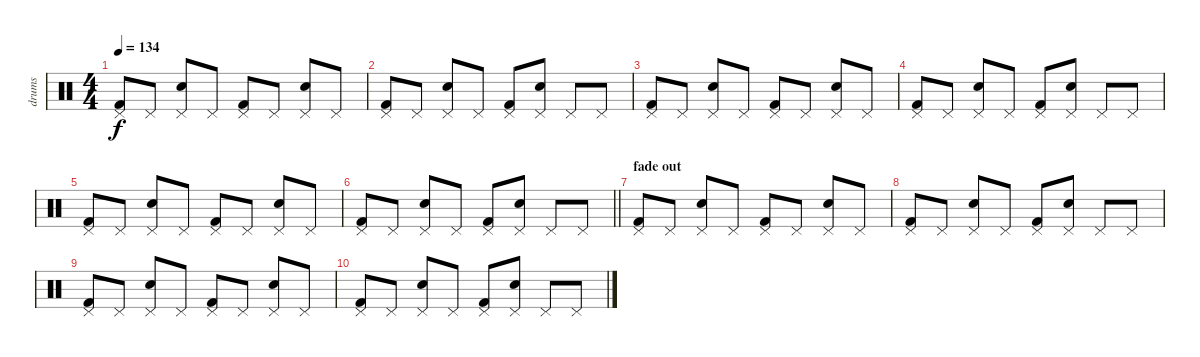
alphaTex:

\track ("drums" "drums") {instrument percussion}
\staff {score}
\articulation defaults
\ts (4 4)
\tempo 134
\clef neutral
\ks c
("Kick (hit) 2" "Pedal Hi-Hat (hit)").8{dy f} "Pedal Hi-Hat (hit)".8 ("Snare (hit) 2" "Pedal Hi-Hat (hit)").8 "Pedal Hi-Hat (hit)".8 ("Kick (hit) 2" "Pedal Hi-Hat (hit)").8 "Pedal Hi-Hat (hit)".8 ("Snare (hit) 2" "Pedal Hi-Hat (hit)").8 "Pedal Hi-Hat (hit)".8 |
("Kick (hit) 2" "Pedal Hi-Hat (hit)").8 "Pedal Hi-Hat (hit)".8 ("Snare (hit) 2" "Pedal Hi-Hat (hit)").8 "Pedal Hi-Hat (hit)".8 ("Kick (hit) 2" "Pedal Hi-Hat (hit)").8 ("Snare (hit) 2" "Pedal Hi-Hat (hit)").8 "Pedal Hi-Hat (hit)".8 "Pedal Hi-Hat (hit)".8 |
("Kick (hit) 2" "Pedal Hi-Hat (hit)").8 "Pedal Hi-Hat (hit)".8 ("Snare (hit) 2" "Pedal Hi-Hat (hit)").8 "Pedal Hi-Hat (hit)".8 ("Kick (hit) 2" "Pedal Hi-Hat (hit)").8 "Pedal Hi-Hat (hit)".8 ("Snare (hit) 2" "Pedal Hi-Hat (hit)").8 "Pedal Hi-Hat (hit)".8 |
("Kick (hit) 2" "Pedal Hi-Hat (hit)").8 "Pedal Hi-Hat (hit)".8 ("Snare (hit) 2" "Pedal Hi-Hat (hit)").8 "Pedal Hi-Hat (hit)".8 ("Kick (hit) 2" "Pedal Hi-Hat (hit)").8 ("Snare (hit) 2" "Pedal Hi-Hat (hit)").8 "Pedal Hi-Hat (hit)".8 "Pedal Hi-Hat (hit)".8 |
("Kick (hit) 2" "Pedal Hi-Hat (hit)").8 "Pedal Hi-Hat (hit)".8 ("Snare (hit) 2" "Pedal Hi-Hat (hit)").8 "Pedal Hi-Hat (hit)".8 ("Kick (hit) 2" "Pedal Hi-Hat (hit)").8 "Pedal Hi-Hat (hit)".8 ("Snare (hit) 2" "Pedal Hi-Hat (hit)").8 "Pedal Hi-Hat (hit)".8 |
\barLineRight lightlight
("Kick (hit) 2" "Pedal Hi-Hat (hit)").8 "Pedal Hi-Hat (hit)".8 ("Snare (hit) 2" "Pedal Hi-Hat (hit)").8 "Pedal Hi-Hat (hit)".8 ("Kick (hit) 2" "Pedal Hi-Hat (hit)").8 ("Snare (hit) 2" "Pedal Hi-Hat (hit)").8 "Pedal Hi-Hat (hit)".8 "Pedal Hi-Hat (hit)".8 |
\section ("" "fade out")
("Kick (hit) 2" "Pedal Hi-Hat (hit)").8 "Pedal Hi-Hat (hit)".8 ("Snare (hit) 2" "Pedal Hi-Hat (hit)").8 "Pedal Hi-Hat (hit)".8 ("Kick (hit) 2" "Pedal Hi-Hat (hit)").8 "Pedal Hi-Hat (hit)".8 ("Snare (hit) 2" "Pedal Hi-Hat (hit)").8 "Pedal Hi-Hat (hit)".8 |
("Kick (hit) 2" "Pedal Hi-Hat (hit)").8 "Pedal Hi-Hat (hit)".8 ("Snare (hit) 2" "Pedal Hi-Hat (hit)").8 "Pedal Hi-Hat (hit)".8 ("Kick (hit) 2" "Pedal Hi-Hat (hit)").8 ("Snare (hit) 2" "Pedal Hi-Hat (hit)").8 "Pedal Hi-Hat (hit)".8 "Pedal Hi-Hat (hit)".8 |
("Kick (hit) 2" "Pedal Hi-Hat (hit)").8 "Pedal Hi-Hat (hit)".8 ("Snare (hit) 2" "Pedal Hi-Hat (hit)").8 "Pedal Hi-Hat (hit)".8 ("Kick (hit) 2" "Pedal Hi-Hat (hit)").8 "Pedal Hi-Hat (hit)".8 ("Snare (hit) 2" "Pedal Hi-Hat (hit)").8 "Pedal Hi-Hat (hit)".8 |
("Kick (hit) 2" "Pedal Hi-Hat (hit)").8 "Pedal Hi-Hat (hit)".8 ("Snare (hit) 2" "Pedal Hi-Hat (hit)").8 "Pedal Hi-Hat (hit)".8 ("Kick (hit) 2" "Pedal Hi-Hat (hit)").8 ("Snare (hit) 2" "Pedal Hi-Hat (hit)").8 "Pedal Hi-Hat (hit)".8 "Pedal Hi-Hat (hit)".8
